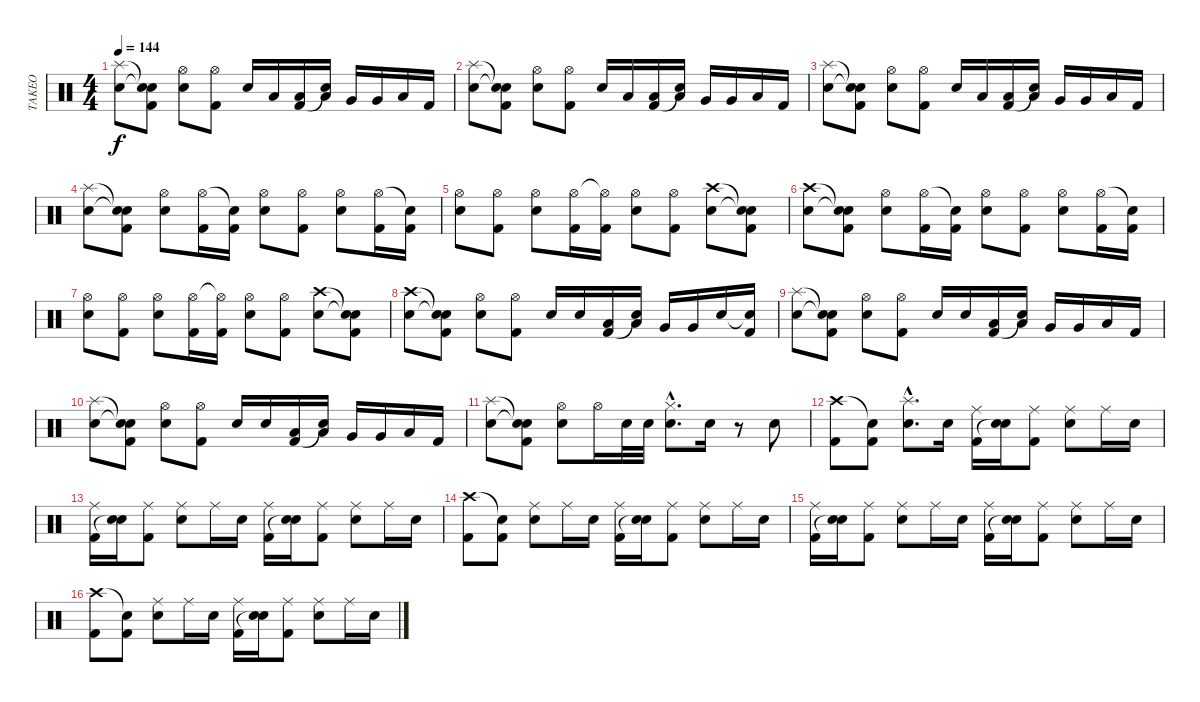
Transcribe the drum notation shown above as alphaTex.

\track ("TAKEO" "TAKEO") {instrument percussion}
\staff {score}
\articulation defaults
\ts (4 4)
\tempo 144
\clef neutral
\ks c
("Splash (hit)" "Electric Snare (hit)").8{dy f} ("Snare (hit)"{t} "Snare (hit)"{t} "Kick (hit) 2").8 ("Hi-Hat (open)" "Electric Snare (hit)").8 ("Hi-Hat (open)" "Kick (hit) 2").8 "Electric Snare (hit)".16 "Low Tom (hit)".16 ("Low Tom (hit)" "Kick (hit) 2").16 ("Low Tom (hit)" "Snare (hit)"{t}).16 "Very Low Tom (hit)".16 "Very Low Tom (hit)".16 "Low Floor Tom (hit)".16 "Kick (hit) 2".16 |
("Splash (hit)" "Electric Snare (hit)").8 ("Snare (hit)"{t} "Snare (hit)"{t} "Kick (hit) 2").8 ("Hi-Hat (open)" "Electric Snare (hit)").8 ("Hi-Hat (open)" "Kick (hit) 2").8 "Electric Snare (hit)".16 "Low Tom (hit)".16 ("Low Tom (hit)" "Kick (hit) 2").16 ("Low Tom (hit)" "Snare (hit)"{t}).16 "Very Low Tom (hit)".16 "Very Low Tom (hit)".16 "Low Floor Tom (hit)".16 "Kick (hit) 2".16 |
("Splash (hit)" "Electric Snare (hit)").8 ("Snare (hit)"{t} "Snare (hit)"{t} "Kick (hit) 2").8 ("Hi-Hat (open)" "Electric Snare (hit)").8 ("Hi-Hat (open)" "Kick (hit) 2").8 "Electric Snare (hit)".16 "Low Tom (hit)".16 ("Low Tom (hit)" "Kick (hit) 2").16 ("Low Tom (hit)" "Snare (hit)"{t}).16 "Very Low Tom (hit)".16 "Very Low Tom (hit)".16 "Low Floor Tom (hit)".16 "Kick (hit) 2".16 |
("Splash (hit)" "Electric Snare (hit)").8 ("Snare (hit)"{t} "Snare (hit)"{t} "Kick (hit) 2").8 ("Hi-Hat (open)" "Electric Snare (hit)").8 ("Hi-Hat (open)" "Kick (hit) 2").16 ("Snare (hit)"{t} "Kick (hit) 2").16 ("Hi-Hat (open)" "Electric Snare (hit)").8 ("Hi-Hat (open)" "Kick (hit) 2").8 ("Hi-Hat (open)" "Electric Snare (hit)").8 ("Hi-Hat (open)" "Kick (hit) 2").16 ("Snare (hit)"{t} "Kick (hit) 2").16 |
("Hi-Hat (open)" "Electric Snare (hit)").8 ("Hi-Hat (open)" "Kick (hit) 2").8 ("Hi-Hat (open)" "Electric Snare (hit)").8 ("Hi-Hat (open)" "Kick (hit) 2").16 ("Hi-Hat (open)"{t} "Kick (hit) 2").16 ("Hi-Hat (open)" "Electric Snare (hit)").8 ("Hi-Hat (open)" "Kick (hit) 2").8 ("Crash high (hit)" "Electric Snare (hit)").8 ("Snare (hit)"{t} "Snare (hit)"{t} "Kick (hit) 2").8 |
("Crash high (hit)" "Electric Snare (hit)").8 ("Snare (hit)"{t} "Snare (hit)"{t} "Kick (hit) 2").8 ("Hi-Hat (open)" "Electric Snare (hit)").8 ("Hi-Hat (open)" "Kick (hit) 2").16 ("Snare (hit)"{t} "Kick (hit) 2").16 ("Hi-Hat (open)" "Electric Snare (hit)").8 ("Hi-Hat (open)" "Kick (hit) 2").8 ("Hi-Hat (open)" "Electric Snare (hit)").8 ("Hi-Hat (open)" "Kick (hit) 2").16 ("Snare (hit)"{t} "Kick (hit) 2").16 |
("Hi-Hat (open)" "Electric Snare (hit)").8 ("Hi-Hat (open)" "Kick (hit) 2").8 ("Hi-Hat (open)" "Electric Snare (hit)").8 ("Hi-Hat (open)" "Kick (hit) 2").16 ("Hi-Hat (open)"{t} "Kick (hit) 2").16 ("Hi-Hat (open)" "Electric Snare (hit)").8 ("Hi-Hat (open)" "Kick (hit) 2").8 ("Crash high (hit)" "Electric Snare (hit)").8 ("Snare (hit)"{t} "Snare (hit)"{t} "Kick (hit) 2").8 |
("Crash high (hit)" "Electric Snare (hit)").8 ("Snare (hit)"{t} "Snare (hit)"{t} "Kick (hit) 2").8 ("Hi-Hat (open)" "Electric Snare (hit)").8 ("Hi-Hat (open)" "Kick (hit) 2").8 "Electric Snare (hit)".16 "Electric Snare (hit)".16 ("Low Tom (hit)" "Kick (hit) 2").16 ("Low Tom (hit)" "Snare (hit)"{t}).16 "Very Low Tom (hit)".16 "Very Low Tom (hit)".16 "Electric Snare (hit)".16 ("Snare (hit)"{t} "Kick (hit) 2").16 |
("Splash (hit)" "Electric Snare (hit)").8 ("Snare (hit)"{t} "Snare (hit)"{t} "Kick (hit) 2").8 ("Hi-Hat (open)" "Electric Snare (hit)").8 ("Hi-Hat (open)" "Kick (hit) 2").8 "Electric Snare (hit)".16 "Electric Snare (hit)".16 ("Low Tom (hit)" "Kick (hit) 2").16 ("Low Tom (hit)" "Snare (hit)"{t}).16 "Very Low Tom (hit)".16 "Very Low Tom (hit)".16 "Low Floor Tom (hit)".16 "Kick (hit) 2".16 |
("Splash (hit)" "Electric Snare (hit)").8 ("Snare (hit)"{t} "Snare (hit)"{t} "Kick (hit) 2").8 ("Hi-Hat (open)" "Electric Snare (hit)").8 ("Hi-Hat (open)" "Kick (hit) 2").8 "Electric Snare (hit)".16 "Electric Snare (hit)".16 ("Low Tom (hit)" "Kick (hit) 2").16 ("Low Tom (hit)" "Snare (hit)"{t}).16 "Very Low Tom (hit)".16 "Very Low Tom (hit)".16 "Low Floor Tom (hit)".16 "Kick (hit) 2".16 |
("Splash (hit)" "Electric Snare (hit)").8 ("Snare (hit)"{t} "Snare (hit)"{t} "Kick (hit) 2").8 ("Hi-Hat (open)" "Electric Snare (hit)").8 "Hi-Hat (open)".16 "Electric Snare (hit)".32 "Electric Snare (hit)".32 ("Hi-Hat (closed)"{hac} "Electric Snare (hit)"{hac}).8{d} "Electric Snare (hit)".16 r.8 "Electric Snare (hit)".8 |
("Crash high (hit)" "Kick (hit) 2").8 ("Snare (hit)"{t} "Kick (hit) 2").8 ("Splash (hit)"{hac} "Electric Snare (hit)"{hac}).8{d} "Electric Snare (hit)".16 ("Ride (middle)" "Kick (hit) 2").16 ("Electric Snare (hit)" "Snare (hit)"{t}).16 ("Ride (middle)" "Kick (hit) 2").8 ("Ride (middle)" "Electric Snare (hit)").8 "Ride (middle)".16 "Electric Snare (hit)".16 |
("Ride (middle)" "Kick (hit) 2").16 ("Electric Snare (hit)" "Snare (hit)"{t}).16 ("Ride (middle)" "Kick (hit) 2").8 ("Ride (middle)" "Electric Snare (hit)").8 "Ride (middle)".16 "Electric Snare (hit)".16 ("Ride (middle)" "Kick (hit) 2").16 ("Electric Snare (hit)" "Snare (hit)"{t}).16 ("Ride (middle)" "Kick (hit) 2").8 ("Ride (middle)" "Electric Snare (hit)").8 "Ride (middle)".16 "Electric Snare (hit)".16 |
("Crash high (hit)" "Kick (hit) 2").8 ("Snare (hit)"{t} "Kick (hit) 2").8 ("Ride (middle)" "Electric Snare (hit)").8 "Ride (middle)".16 "Electric Snare (hit)".16 ("Ride (middle)" "Kick (hit) 2").16 ("Electric Snare (hit)" "Snare (hit)"{t}).16 ("Ride (middle)" "Kick (hit) 2").8 ("Ride (middle)" "Electric Snare (hit)").8 "Ride (middle)".16 "Electric Snare (hit)".16 |
("Ride (middle)" "Kick (hit) 2").16 ("Electric Snare (hit)" "Snare (hit)"{t}).16 ("Ride (middle)" "Kick (hit) 2").8 ("Ride (middle)" "Electric Snare (hit)").8 "Ride (middle)".16 "Electric Snare (hit)".16 ("Ride (middle)" "Kick (hit) 2").16 ("Electric Snare (hit)" "Snare (hit)"{t}).16 ("Ride (middle)" "Kick (hit) 2").8 ("Ride (middle)" "Electric Snare (hit)").8 "Ride (middle)".16 "Electric Snare (hit)".16 |
("Crash high (hit)" "Kick (hit) 2").8 ("Snare (hit)"{t} "Kick (hit) 2").8 ("Ride (middle)" "Electric Snare (hit)").8 "Ride (middle)".16 "Electric Snare (hit)".16 ("Ride (middle)" "Kick (hit) 2").16 ("Electric Snare (hit)" "Snare (hit)"{t}).16 ("Ride (middle)" "Kick (hit) 2").8 ("Ride (middle)" "Electric Snare (hit)").8 "Ride (middle)".16 "Electric Snare (hit)".16
